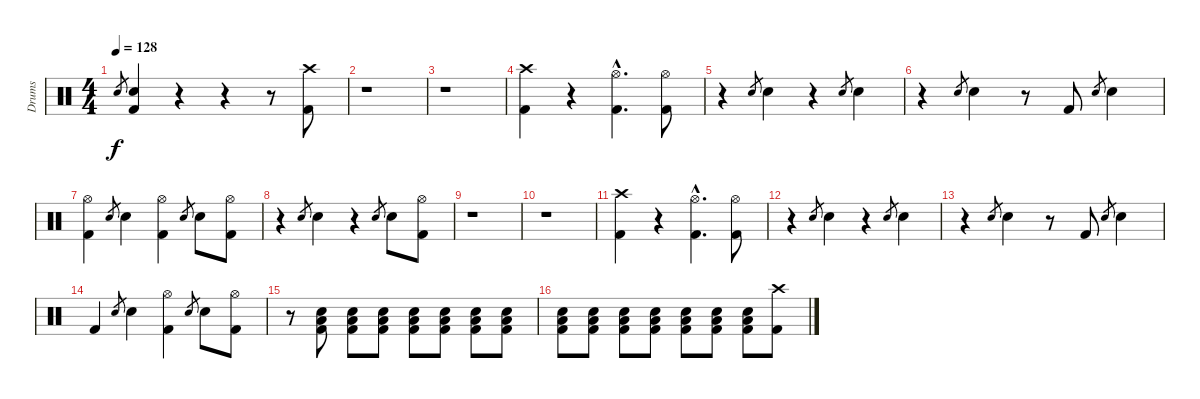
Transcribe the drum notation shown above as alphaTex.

\track ("Drums" "Drums") {instrument percussion}
\staff {score}
\articulation defaults
\ts (4 4)
\tempo 128
\clef neutral
\ks c "Electric Snare (hit)".8{gr dy f}
("Electric Snare (hit)" "Kick (hit) 2").4 r.4 r.4 r.8 ("Crash high (hit)" "Kick (hit) 2").8 |
r.1 |
r.1 |
("Crash high (hit)" "Kick (hit) 2").4 r.4 ("Hi-Hat (open)"{hac} "Kick (hit) 2"{hac}).4{d} ("Hi-Hat (open)" "Kick (hit) 2").8 |
r.4 "Electric Snare (hit)".8{gr} "Electric Snare (hit)".4 r.4 "Electric Snare (hit)".8{gr} "Electric Snare (hit)".4 |
r.4 "Electric Snare (hit)".8{gr} "Electric Snare (hit)".4 r.8 "Kick (hit) 2".8 "Electric Snare (hit)".8{gr} "Electric Snare (hit)".4 |
("Hi-Hat (open)" "Kick (hit) 2").4 "Electric Snare (hit)".8{gr} "Electric Snare (hit)".4 ("Hi-Hat (open)" "Kick (hit) 2").4 "Electric Snare (hit)".8{gr} "Electric Snare (hit)".8 ("Hi-Hat (open)" "Kick (hit) 2").8 |
r.4 "Electric Snare (hit)".8{gr} "Electric Snare (hit)".4 r.4 "Electric Snare (hit)".8{gr} "Electric Snare (hit)".8 ("Hi-Hat (open)" "Kick (hit) 2").8 |
r.1 |
r.1 |
("Crash high (hit)" "Kick (hit) 2").4 r.4 ("Hi-Hat (open)"{hac} "Kick (hit) 2"{hac}).4{d} ("Hi-Hat (open)" "Kick (hit) 2").8 |
r.4 "Electric Snare (hit)".8{gr} "Electric Snare (hit)".4 r.4 "Electric Snare (hit)".8{gr} "Electric Snare (hit)".4 |
r.4 "Electric Snare (hit)".8{gr} "Electric Snare (hit)".4 r.8 "Kick (hit) 2".8 "Electric Snare (hit)".8{gr} "Electric Snare (hit)".4 |
"Kick (hit) 2".4 "Electric Snare (hit)".8{gr} "Electric Snare (hit)".4 ("Hi-Hat (open)" "Kick (hit) 2").4 "Electric Snare (hit)".8{gr} "Electric Snare (hit)".8 ("Hi-Hat (open)" "Kick (hit) 2").8 |
r.8 ("Electric Snare (hit)" "Low Tom (hit)" "Kick (hit) 2").8 ("Electric Snare (hit)" "Low Tom (hit)" "Kick (hit) 2").8 ("Electric Snare (hit)" "Low Tom (hit)" "Kick (hit) 2").8 ("Electric Snare (hit)" "Low Tom (hit)" "Kick (hit) 2").8 ("Electric Snare (hit)" "Low Tom (hit)" "Kick (hit) 2").8 ("Electric Snare (hit)" "Low Tom (hit)" "Kick (hit) 2").8 ("Electric Snare (hit)" "Low Tom (hit)" "Kick (hit) 2").8 |
("Electric Snare (hit)" "Low Tom (hit)" "Kick (hit) 2").8 ("Electric Snare (hit)" "Low Tom (hit)" "Kick (hit) 2").8 ("Electric Snare (hit)" "Low Tom (hit)" "Kick (hit) 2").8 ("Electric Snare (hit)" "Low Tom (hit)" "Kick (hit) 2").8 ("Electric Snare (hit)" "Low Tom (hit)" "Kick (hit) 2").8 ("Electric Snare (hit)" "Low Tom (hit)" "Kick (hit) 2").8 ("Electric Snare (hit)" "Low Tom (hit)" "Kick (hit) 2").8 ("Crash high (hit)" "Kick (hit) 2").8
